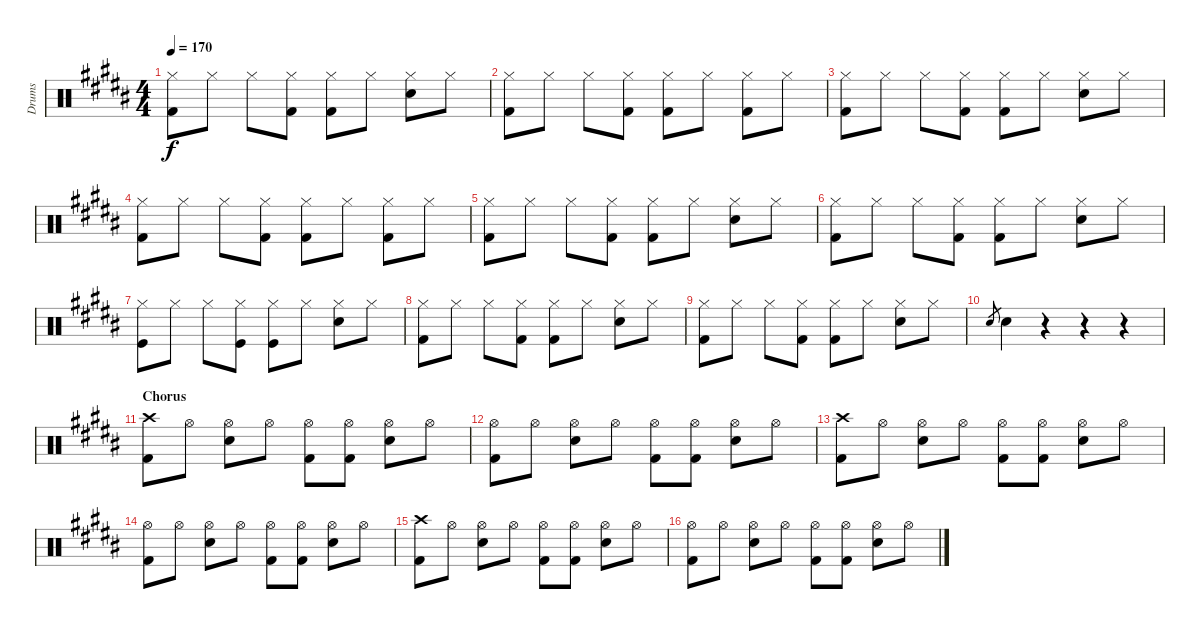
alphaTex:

\track ("Drums" "Drums") {instrument percussion}
\staff {score}
\articulation defaults
\ts (4 4)
\tempo 170
\clef neutral
\ks b
("Hi-Hat (closed)" "Kick (hit) 2").8{dy f} "Hi-Hat (closed)".8 "Hi-Hat (closed)".8 ("Hi-Hat (closed)" "Kick (hit) 2").8 ("Hi-Hat (closed)" "Kick (hit) 2").8 "Hi-Hat (closed)".8 ("Hi-Hat (closed)" "Snare (hit) 2").8 "Hi-Hat (closed)".8 |
("Hi-Hat (closed)" "Kick (hit) 2").8 "Hi-Hat (closed)".8 "Hi-Hat (closed)".8 ("Hi-Hat (closed)" "Kick (hit) 2").8 ("Hi-Hat (closed)" "Kick (hit) 2").8 "Hi-Hat (closed)".8 ("Hi-Hat (closed)" "Kick (hit) 2").8 "Hi-Hat (closed)".8 |
("Hi-Hat (closed)" "Kick (hit) 2").8 "Hi-Hat (closed)".8 "Hi-Hat (closed)".8 ("Hi-Hat (closed)" "Kick (hit) 2").8 ("Hi-Hat (closed)" "Kick (hit) 2").8 "Hi-Hat (closed)".8 ("Hi-Hat (closed)" "Snare (hit) 2").8 "Hi-Hat (closed)".8 |
("Hi-Hat (closed)" "Kick (hit) 2").8 "Hi-Hat (closed)".8 "Hi-Hat (closed)".8 ("Hi-Hat (closed)" "Kick (hit) 2").8 ("Hi-Hat (closed)" "Kick (hit) 2").8 "Hi-Hat (closed)".8 ("Hi-Hat (closed)" "Kick (hit) 2").8 "Hi-Hat (closed)".8 |
("Hi-Hat (closed)" "Kick (hit) 2").8 "Hi-Hat (closed)".8 "Hi-Hat (closed)".8 ("Hi-Hat (closed)" "Kick (hit) 2").8 ("Hi-Hat (closed)" "Kick (hit) 2").8 "Hi-Hat (closed)".8 ("Hi-Hat (closed)" "Snare (hit) 2").8 "Hi-Hat (closed)".8 |
("Hi-Hat (closed)" "Kick (hit) 2").8 "Hi-Hat (closed)".8 "Hi-Hat (closed)".8 ("Hi-Hat (closed)" "Kick (hit) 2").8 ("Hi-Hat (closed)" "Kick (hit) 2").8 "Hi-Hat (closed)".8 ("Hi-Hat (closed)" "Snare (hit) 2").8 "Hi-Hat (closed)".8 |
("Hi-Hat (closed)" "Kick (hit)").8 "Hi-Hat (closed)".8 "Hi-Hat (closed)".8 ("Hi-Hat (closed)" "Kick (hit)").8 ("Hi-Hat (closed)" "Kick (hit)").8 "Hi-Hat (closed)".8 ("Hi-Hat (closed)" "Snare (hit) 2").8 "Hi-Hat (closed)".8 |
("Hi-Hat (closed)" "Kick (hit) 2").8 "Hi-Hat (closed)".8 "Hi-Hat (closed)".8 ("Hi-Hat (closed)" "Kick (hit) 2").8 ("Hi-Hat (closed)" "Kick (hit) 2").8 "Hi-Hat (closed)".8 ("Hi-Hat (closed)" "Snare (hit) 2").8 "Hi-Hat (closed)".8 |
("Hi-Hat (closed)" "Kick (hit) 2").8 "Hi-Hat (closed)".8 "Hi-Hat (closed)".8 ("Hi-Hat (closed)" "Kick (hit) 2").8 ("Hi-Hat (closed)" "Kick (hit) 2").8 "Hi-Hat (closed)".8 ("Hi-Hat (closed)" "Snare (hit) 2").8 "Hi-Hat (closed)".8 |
"Electric Snare (hit)".8{gr} "Electric Snare (hit)".4 r.4 r.4 r.4 |
\section ("" "Chorus")
("Crash high (hit)" "Kick (hit) 2").8 "Hi-Hat (open)".8 ("Hi-Hat (open)" "Electric Snare (hit)").8 "Hi-Hat (open)".8 ("Hi-Hat (open)" "Kick (hit) 2").8 ("Hi-Hat (open)" "Kick (hit) 2").8 ("Hi-Hat (open)" "Electric Snare (hit)").8 "Hi-Hat (open)".8 |
("Hi-Hat (open)" "Kick (hit) 2").8 "Hi-Hat (open)".8 ("Hi-Hat (open)" "Electric Snare (hit)").8 "Hi-Hat (open)".8 ("Hi-Hat (open)" "Kick (hit) 2").8 ("Hi-Hat (open)" "Kick (hit) 2").8 ("Hi-Hat (open)" "Electric Snare (hit)").8 "Hi-Hat (open)".8 |
("Crash high (hit)" "Kick (hit) 2").8 "Hi-Hat (open)".8 ("Hi-Hat (open)" "Electric Snare (hit)").8 "Hi-Hat (open)".8 ("Hi-Hat (open)" "Kick (hit) 2").8 ("Hi-Hat (open)" "Kick (hit) 2").8 ("Hi-Hat (open)" "Electric Snare (hit)").8 "Hi-Hat (open)".8 |
("Hi-Hat (open)" "Kick (hit) 2").8 "Hi-Hat (open)".8 ("Hi-Hat (open)" "Electric Snare (hit)").8 "Hi-Hat (open)".8 ("Hi-Hat (open)" "Kick (hit) 2").8 ("Hi-Hat (open)" "Kick (hit) 2").8 ("Hi-Hat (open)" "Electric Snare (hit)").8 "Hi-Hat (open)".8 |
("Crash high (hit)" "Kick (hit) 2").8 "Hi-Hat (open)".8 ("Hi-Hat (open)" "Electric Snare (hit)").8 "Hi-Hat (open)".8 ("Hi-Hat (open)" "Kick (hit) 2").8 ("Hi-Hat (open)" "Kick (hit) 2").8 ("Hi-Hat (open)" "Electric Snare (hit)").8 "Hi-Hat (open)".8 |
("Hi-Hat (open)" "Kick (hit) 2").8 "Hi-Hat (open)".8 ("Hi-Hat (open)" "Electric Snare (hit)").8 "Hi-Hat (open)".8 ("Hi-Hat (open)" "Kick (hit) 2").8 ("Hi-Hat (open)" "Kick (hit) 2").8 ("Hi-Hat (open)" "Electric Snare (hit)").8 "Hi-Hat (open)".8
